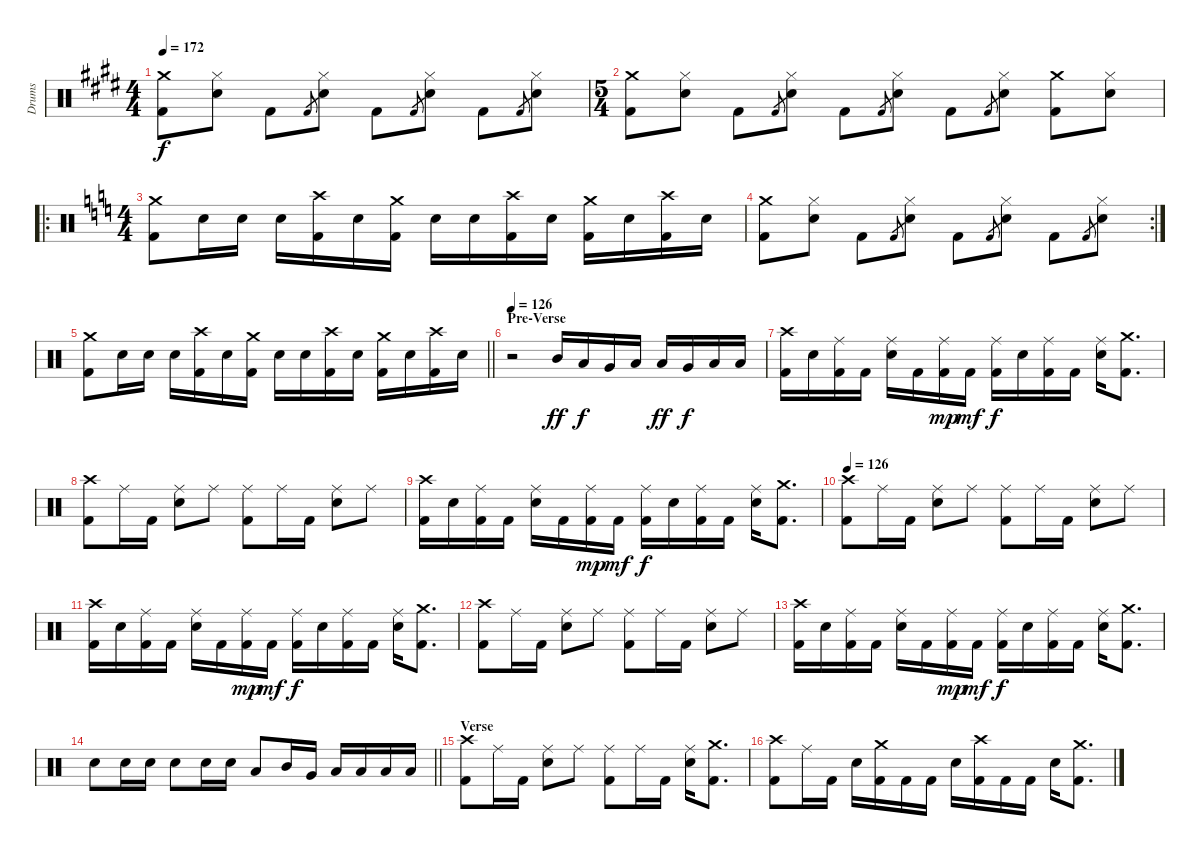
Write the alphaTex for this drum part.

\track ("Drums" "Drums") {instrument percussion}
\staff {score}
\articulation defaults
\ts (4 4)
\tempo 172
\clef neutral
\ks e
("Crash medium (hit)" "Kick (hit) 2").8{dy f} ("Hi-Hat (closed)" "Snare (hit) 2").8 "Kick (hit) 2".8 "Kick (hit) 2".8{gr} ("Hi-Hat (closed)" "Snare (hit) 2").8 "Kick (hit) 2".8 "Kick (hit) 2".8{gr} ("Hi-Hat (closed)" "Snare (hit) 2").8 "Kick (hit) 2".8 "Kick (hit) 2".8{gr} ("Hi-Hat (closed)" "Snare (hit) 2").8 |
\ts (5 4)
("Crash medium (hit)" "Kick (hit) 2").8 ("Hi-Hat (closed)" "Snare (hit) 2").8 "Kick (hit) 2".8 "Kick (hit) 2".8{gr} ("Hi-Hat (closed)" "Snare (hit) 2").8 "Kick (hit) 2".8 "Kick (hit) 2".8{gr} ("Hi-Hat (closed)" "Snare (hit) 2").8 "Kick (hit) 2".8 "Kick (hit) 2".8{gr} ("Hi-Hat (closed)" "Snare (hit) 2").8 ("Crash medium (hit)" "Kick (hit) 2").8 ("Hi-Hat (closed)" "Snare (hit) 2").8 |
\ro
\ts (4 4)
\ks c
("Crash medium (hit)" "Kick (hit) 2").8 "Snare (hit) 2".16 "Snare (hit) 2".16 "Snare (hit) 2".16 ("Crash high (hit)" "Kick (hit) 2").16 "Snare (hit) 2".16 ("Crash medium (hit)" "Kick (hit) 2").16 "Snare (hit) 2".16 "Snare (hit) 2".16 ("Crash high (hit)" "Kick (hit) 2").16 "Snare (hit) 2".16 ("Crash medium (hit)" "Kick (hit) 2").16 "Snare (hit) 2".16 ("Crash high (hit)" "Kick (hit) 2").16 "Snare (hit) 2".16 |
\rc 2
("Crash medium (hit)" "Kick (hit) 2").8 ("Hi-Hat (closed)" "Snare (hit) 2").8 "Kick (hit) 2".8 "Kick (hit) 2".8{gr} ("Hi-Hat (closed)" "Snare (hit) 2").8 "Kick (hit) 2".8 "Kick (hit) 2".8{gr} ("Hi-Hat (closed)" "Snare (hit) 2").8 "Kick (hit) 2".8 "Kick (hit) 2".8{gr} ("Hi-Hat (closed)" "Snare (hit) 2").8 |
\barLineRight lightlight
("Crash medium (hit)" "Kick (hit) 2").8 "Snare (hit) 2".16 "Snare (hit) 2".16 "Snare (hit) 2".16 ("Crash high (hit)" "Kick (hit) 2").16 "Snare (hit) 2".16 ("Crash medium (hit)" "Kick (hit) 2").16 "Snare (hit) 2".16 "Snare (hit) 2".16 ("Crash high (hit)" "Kick (hit) 2").16 "Snare (hit) 2".16 ("Crash medium (hit)" "Kick (hit) 2").16 "Snare (hit) 2".16 ("Crash high (hit)" "Kick (hit) 2").16 "Snare (hit) 2".16 |
\section ("" "Pre-Verse")
\tempo 126
r.2 "Mid Tom (hit)".16{dy ff} "Low Tom (hit)".16{dy f} "Very Low Tom (hit)".16 "Low Floor Tom (hit)".16 "Low Tom (hit)".16{dy ff} "Very Low Tom (hit)".16{dy f} "Low Floor Tom (hit)".16 "Low Floor Tom (hit)".16 |
("Crash high (hit)" "Kick (hit) 2").16 "Snare (hit) 2".16 ("Ride (middle)" "Kick (hit) 2").16 "Kick (hit) 2".16 ("Ride (middle)" "Snare (hit) 2").16 "Kick (hit) 2".16 ("Ride (middle)" "Kick (hit) 2").16{dy mp} "Kick (hit) 2".16{dy mf} ("Ride (middle)" "Kick (hit) 2").16{dy f} "Snare (hit) 2".16 ("Ride (middle)" "Kick (hit) 2").16 "Kick (hit) 2".16 ("Ride (middle)" "Snare (hit) 2").16 ("Crash medium (hit)" "Kick (hit) 2").8{d} |
("Crash high (hit)" "Kick (hit) 2").8 "Ride (middle)".16 "Kick (hit) 2".16 ("Ride (middle)" "Snare (hit) 2").8 "Ride (middle)".8 ("Ride (middle)" "Kick (hit) 2").8 "Ride (middle)".16 "Kick (hit) 2".16 ("Ride (middle)" "Snare (hit) 2").8 "Ride (middle)".8 |
("Crash high (hit)" "Kick (hit) 2").16 "Snare (hit) 2".16 ("Ride (middle)" "Kick (hit) 2").16 "Kick (hit) 2".16 ("Ride (middle)" "Snare (hit) 2").16 "Kick (hit) 2".16 ("Ride (middle)" "Kick (hit) 2").16{dy mp} "Kick (hit) 2".16{dy mf} ("Ride (middle)" "Kick (hit) 2").16{dy f} "Snare (hit) 2".16 ("Ride (middle)" "Kick (hit) 2").16 "Kick (hit) 2".16 ("Ride (middle)" "Snare (hit) 2").16 ("Crash medium (hit)" "Kick (hit) 2").8{d} |
\tempo 126
("Crash high (hit)" "Kick (hit) 2").8 "Ride (middle)".16 "Kick (hit) 2".16 ("Ride (middle)" "Snare (hit) 2").8 "Ride (middle)".8 ("Ride (middle)" "Kick (hit) 2").8 "Ride (middle)".16 "Kick (hit) 2".16 ("Ride (middle)" "Snare (hit) 2").8 "Ride (middle)".8 |
("Crash high (hit)" "Kick (hit) 2").16 "Snare (hit) 2".16 ("Ride (middle)" "Kick (hit) 2").16 "Kick (hit) 2".16 ("Ride (middle)" "Snare (hit) 2").16 "Kick (hit) 2".16 ("Ride (middle)" "Kick (hit) 2").16{dy mp} "Kick (hit) 2".16{dy mf} ("Ride (middle)" "Kick (hit) 2").16{dy f} "Snare (hit) 2".16 ("Ride (middle)" "Kick (hit) 2").16 "Kick (hit) 2".16 ("Ride (middle)" "Snare (hit) 2").16 ("Crash medium (hit)" "Kick (hit) 2").8{d} |
("Crash high (hit)" "Kick (hit) 2").8 "Ride (middle)".16 "Kick (hit) 2".16 ("Ride (middle)" "Snare (hit) 2").8 "Ride (middle)".8 ("Ride (middle)" "Kick (hit) 2").8 "Ride (middle)".16 "Kick (hit) 2".16 ("Ride (middle)" "Snare (hit) 2").8 "Ride (middle)".8 |
("Crash high (hit)" "Kick (hit) 2").16 "Snare (hit) 2".16 ("Ride (middle)" "Kick (hit) 2").16 "Kick (hit) 2".16 ("Ride (middle)" "Snare (hit) 2").16 "Kick (hit) 2".16 ("Ride (middle)" "Kick (hit) 2").16{dy mp} "Kick (hit) 2".16{dy mf} ("Ride (middle)" "Kick (hit) 2").16{dy f} "Snare (hit) 2".16 ("Ride (middle)" "Kick (hit) 2").16 "Kick (hit) 2".16 ("Ride (middle)" "Snare (hit) 2").16 ("Crash medium (hit)" "Kick (hit) 2").8{d} |
\barLineRight lightlight "Snare (hit) 2".8 "Snare (hit) 2".16 "Snare (hit) 2".16 "Snare (hit) 2".8 "Snare (hit) 2".16 "Snare (hit) 2".16 "Low Tom (hit)".8 "Mid Tom (hit)".16 "Very Low Tom (hit)".16 "Low Tom (hit)".16 "Low Floor Tom (hit)".16 "Low Floor Tom (hit)".16 "Low Floor Tom (hit)".16
|
\section ("" "Verse")
("Crash high (hit)" "Kick (hit) 2").8 "Ride (middle)".16 "Kick (hit) 2".16 ("Ride (middle)" "Snare (hit) 2").8 "Ride (middle)".8 ("Ride (middle)" "Kick (hit) 2").8 "Ride (middle)".16 "Kick (hit) 2".16 ("Ride (middle)" "Snare (hit) 2").16 ("Crash medium (hit)" "Kick (hit) 2").8{d} |
("Crash high (hit)" "Kick (hit) 2").8 "Ride (middle)".16 "Kick (hit) 2".16 "Snare (hit) 2".16 ("Crash medium (hit)" "Kick (hit) 2").16 "Kick (hit) 2".16 "Kick (hit) 2".16 "Snare (hit) 2".16 ("Crash high (hit)" "Kick (hit) 2").16 "Kick (hit) 2".16 "Kick (hit) 2".16 "Snare (hit) 2".16 ("Crash medium (hit)" "Kick (hit) 2").8{d}
